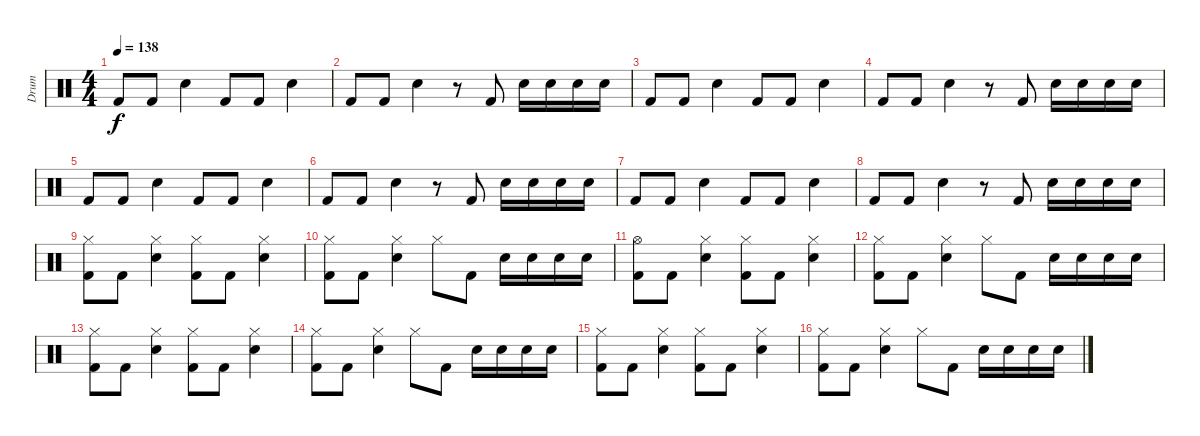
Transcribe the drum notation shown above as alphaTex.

\track ("Drum" "Drum") {instrument percussion}
\staff {score}
\articulation defaults
\ts (4 4)
\tempo 138
\clef neutral
\ks c "Kick (hit) 2".8{dy f} "Kick (hit) 2".8 "Electric Snare (hit)".4 "Kick (hit) 2".8 "Kick (hit) 2".8 "Electric Snare (hit)".4
|
"Kick (hit) 2".8 "Kick (hit) 2".8 "Electric Snare (hit)".4 r.8 "Kick (hit) 2".8 "Electric Snare (hit)".16 "Electric Snare (hit)".16 "Electric Snare (hit)".16 "Electric Snare (hit)".16 |
"Kick (hit) 2".8 "Kick (hit) 2".8 "Electric Snare (hit)".4 "Kick (hit) 2".8 "Kick (hit) 2".8 "Electric Snare (hit)".4 |
"Kick (hit) 2".8 "Kick (hit) 2".8 "Electric Snare (hit)".4 r.8 "Kick (hit) 2".8 "Electric Snare (hit)".16 "Electric Snare (hit)".16 "Electric Snare (hit)".16 "Electric Snare (hit)".16 |
"Kick (hit) 2".8 "Kick (hit) 2".8 "Electric Snare (hit)".4 "Kick (hit) 2".8 "Kick (hit) 2".8 "Electric Snare (hit)".4 |
"Kick (hit) 2".8 "Kick (hit) 2".8 "Electric Snare (hit)".4 r.8 "Kick (hit) 2".8 "Electric Snare (hit)".16 "Electric Snare (hit)".16 "Electric Snare (hit)".16 "Electric Snare (hit)".16 |
"Kick (hit) 2".8 "Kick (hit) 2".8 "Electric Snare (hit)".4 "Kick (hit) 2".8 "Kick (hit) 2".8 "Electric Snare (hit)".4 |
"Kick (hit) 2".8 "Kick (hit) 2".8 "Electric Snare (hit)".4 r.8 "Kick (hit) 2".8 "Electric Snare (hit)".16 "Electric Snare (hit)".16 "Electric Snare (hit)".16 "Electric Snare (hit)".16 |
("Hi-Hat (closed)" "Kick (hit) 2").8 "Kick (hit) 2".8 ("Hi-Hat (closed)" "Electric Snare (hit)").4 ("Hi-Hat (closed)" "Kick (hit) 2").8 "Kick (hit) 2".8 ("Hi-Hat (closed)" "Electric Snare (hit)").4 |
("Hi-Hat (closed)" "Kick (hit) 2").8 "Kick (hit) 2".8 ("Hi-Hat (closed)" "Electric Snare (hit)").4 "Hi-Hat (closed)".8 "Kick (hit) 2".8 "Electric Snare (hit)".16 "Electric Snare (hit)".16 "Electric Snare (hit)".16 "Electric Snare (hit)".16 |
("Hi-Hat (open)" "Kick (hit) 2").8 "Kick (hit) 2".8 ("Hi-Hat (closed)" "Electric Snare (hit)").4 ("Hi-Hat (closed)" "Kick (hit) 2").8 "Kick (hit) 2".8 ("Hi-Hat (closed)" "Electric Snare (hit)").4 |
("Hi-Hat (closed)" "Kick (hit) 2").8 "Kick (hit) 2".8 ("Hi-Hat (closed)" "Electric Snare (hit)").4 "Hi-Hat (closed)".8 "Kick (hit) 2".8 "Electric Snare (hit)".16 "Electric Snare (hit)".16 "Electric Snare (hit)".16 "Electric Snare (hit)".16 |
("Hi-Hat (closed)" "Kick (hit) 2").8 "Kick (hit) 2".8 ("Hi-Hat (closed)" "Electric Snare (hit)").4 ("Hi-Hat (closed)" "Kick (hit) 2").8 "Kick (hit) 2".8 ("Hi-Hat (closed)" "Electric Snare (hit)").4 |
("Hi-Hat (closed)" "Kick (hit) 2").8 "Kick (hit) 2".8 ("Hi-Hat (closed)" "Electric Snare (hit)").4 "Hi-Hat (closed)".8 "Kick (hit) 2".8 "Electric Snare (hit)".16 "Electric Snare (hit)".16 "Electric Snare (hit)".16 "Electric Snare (hit)".16 |
("Hi-Hat (closed)" "Kick (hit) 2").8 "Kick (hit) 2".8 ("Hi-Hat (closed)" "Electric Snare (hit)").4 ("Hi-Hat (closed)" "Kick (hit) 2").8 "Kick (hit) 2".8 ("Hi-Hat (closed)" "Electric Snare (hit)").4 |
("Hi-Hat (closed)" "Kick (hit) 2").8 "Kick (hit) 2".8 ("Hi-Hat (closed)" "Electric Snare (hit)").4 "Hi-Hat (closed)".8 "Kick (hit) 2".8 "Electric Snare (hit)".16 "Electric Snare (hit)".16 "Electric Snare (hit)".16 "Electric Snare (hit)".16
